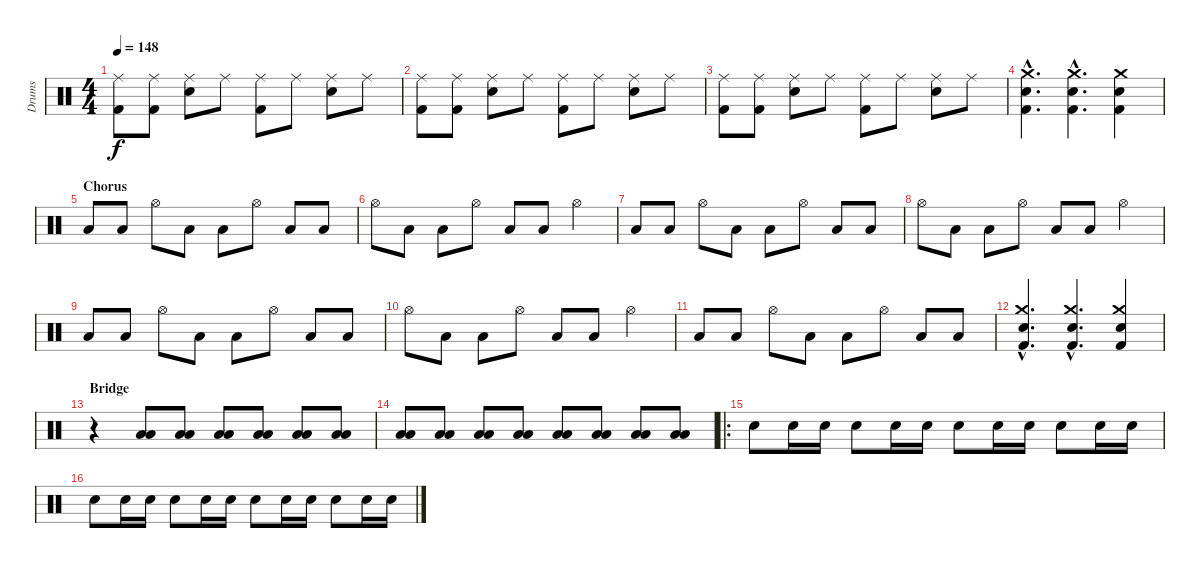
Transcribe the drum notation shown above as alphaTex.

\track ("Drums" "Drums") {instrument percussion}
\staff {score}
\articulation defaults
\ts (4 4)
\tempo 148
\clef neutral
\ks c
("Ride (middle)" "Kick (hit) 2").8{dy f} ("Ride (middle)" "Kick (hit) 2").8 ("Ride (middle)" "Snare (hit) 2").8 "Ride (middle)".8 ("Ride (middle)" "Kick (hit) 2").8 "Ride (middle)".8 ("Ride (middle)" "Snare (hit) 2").8 "Ride (middle)".8 |
("Ride (middle)" "Kick (hit) 2").8 ("Ride (middle)" "Kick (hit) 2").8 ("Ride (middle)" "Snare (hit) 2").8 "Ride (middle)".8 ("Ride (middle)" "Kick (hit) 2").8 "Ride (middle)".8 ("Ride (middle)" "Snare (hit) 2").8 "Ride (middle)".8 |
("Ride (middle)" "Kick (hit) 2").8 ("Ride (middle)" "Kick (hit) 2").8 ("Ride (middle)" "Snare (hit) 2").8 "Ride (middle)".8 ("Ride (middle)" "Kick (hit) 2").8 "Ride (middle)".8 ("Ride (middle)" "Snare (hit) 2").8 "Ride (middle)".8 |
("Crash medium (hit)"{hac} "Snare (hit) 2"{hac} "Kick (hit) 2"{hac}).4{d} ("Crash medium (hit)"{hac} "Snare (hit) 2"{hac} "Kick (hit) 2"{hac}).4{d} ("Crash medium (hit)" "Snare (hit) 2" "Kick (hit) 2").4 |
\section ("" "Chorus")
"Low Floor Tom (hit)".8 "Low Floor Tom (hit)".8 "Hi-Hat (open)".8 "Low Floor Tom (hit)".8 "Low Floor Tom (hit)".8 "Hi-Hat (open)".8 "Low Floor Tom (hit)".8 "Low Floor Tom (hit)".8 |
"Hi-Hat (open)".8 "Low Floor Tom (hit)".8 "Low Floor Tom (hit)".8 "Hi-Hat (open)".8 "Low Floor Tom (hit)".8 "Low Floor Tom (hit)".8 "Hi-Hat (open)".4 |
"Low Floor Tom (hit)".8 "Low Floor Tom (hit)".8 "Hi-Hat (open)".8 "Low Floor Tom (hit)".8 "Low Floor Tom (hit)".8 "Hi-Hat (open)".8 "Low Floor Tom (hit)".8 "Low Floor Tom (hit)".8 |
"Hi-Hat (open)".8 "Low Floor Tom (hit)".8 "Low Floor Tom (hit)".8 "Hi-Hat (open)".8 "Low Floor Tom (hit)".8 "Low Floor Tom (hit)".8 "Hi-Hat (open)".4 |
"Low Floor Tom (hit)".8 "Low Floor Tom (hit)".8 "Hi-Hat (open)".8 "Low Floor Tom (hit)".8 "Low Floor Tom (hit)".8 "Hi-Hat (open)".8 "Low Floor Tom (hit)".8 "Low Floor Tom (hit)".8 |
"Hi-Hat (open)".8 "Low Floor Tom (hit)".8 "Low Floor Tom (hit)".8 "Hi-Hat (open)".8 "Low Floor Tom (hit)".8 "Low Floor Tom (hit)".8 "Hi-Hat (open)".4 |
"Low Floor Tom (hit)".8 "Low Floor Tom (hit)".8 "Hi-Hat (open)".8 "Low Floor Tom (hit)".8 "Low Floor Tom (hit)".8 "Hi-Hat (open)".8 "Low Floor Tom (hit)".8 "Low Floor Tom (hit)".8 |
("Crash medium (hit)"{hac} "Electric Snare (hit)"{hac} "Kick (hit) 2"{hac}).4{d} ("Crash medium (hit)"{hac} "Electric Snare (hit)"{hac} "Kick (hit) 2"{hac}).4{d} ("Crash medium (hit)" "Electric Snare (hit)" "Kick (hit) 2").4 |
\section ("" "Bridge")
r.4 ("Low Tom (hit)" "Low Floor Tom (hit)").8 ("Low Tom (hit)" "Low Floor Tom (hit)").8 ("Low Tom (hit)" "Low Floor Tom (hit)").8 ("Low Tom (hit)" "Low Floor Tom (hit)").8 ("Low Tom (hit)" "Low Floor Tom (hit)").8 ("Low Tom (hit)" "Low Floor Tom (hit)").8 |
("Low Tom (hit)" "Low Floor Tom (hit)").8 ("Low Tom (hit)" "Low Floor Tom (hit)").8 ("Low Tom (hit)" "Low Floor Tom (hit)").8 ("Low Tom (hit)" "Low Floor Tom (hit)").8 ("Low Tom (hit)" "Low Floor Tom (hit)").8 ("Low Tom (hit)" "Low Floor Tom (hit)").8 ("Low Tom (hit)" "Low Floor Tom (hit)").8 ("Low Tom (hit)" "Low Floor Tom (hit)").8 |
\ro "Snare (hit) 2".8{volume 8} "Snare (hit) 2".16 "Snare (hit) 2".16 "Snare (hit) 2".8 "Snare (hit) 2".16 "Snare (hit) 2".16 "Snare (hit) 2".8 "Snare (hit) 2".16 "Snare (hit) 2".16 "Snare (hit) 2".8 "Snare (hit) 2".16 "Snare (hit) 2".16
|
"Snare (hit) 2".8 "Snare (hit) 2".16 "Snare (hit) 2".16 "Snare (hit) 2".8 "Snare (hit) 2".16 "Snare (hit) 2".16 "Snare (hit) 2".8 "Snare (hit) 2".16 "Snare (hit) 2".16 "Snare (hit) 2".8 "Snare (hit) 2".16 "Snare (hit) 2".16
